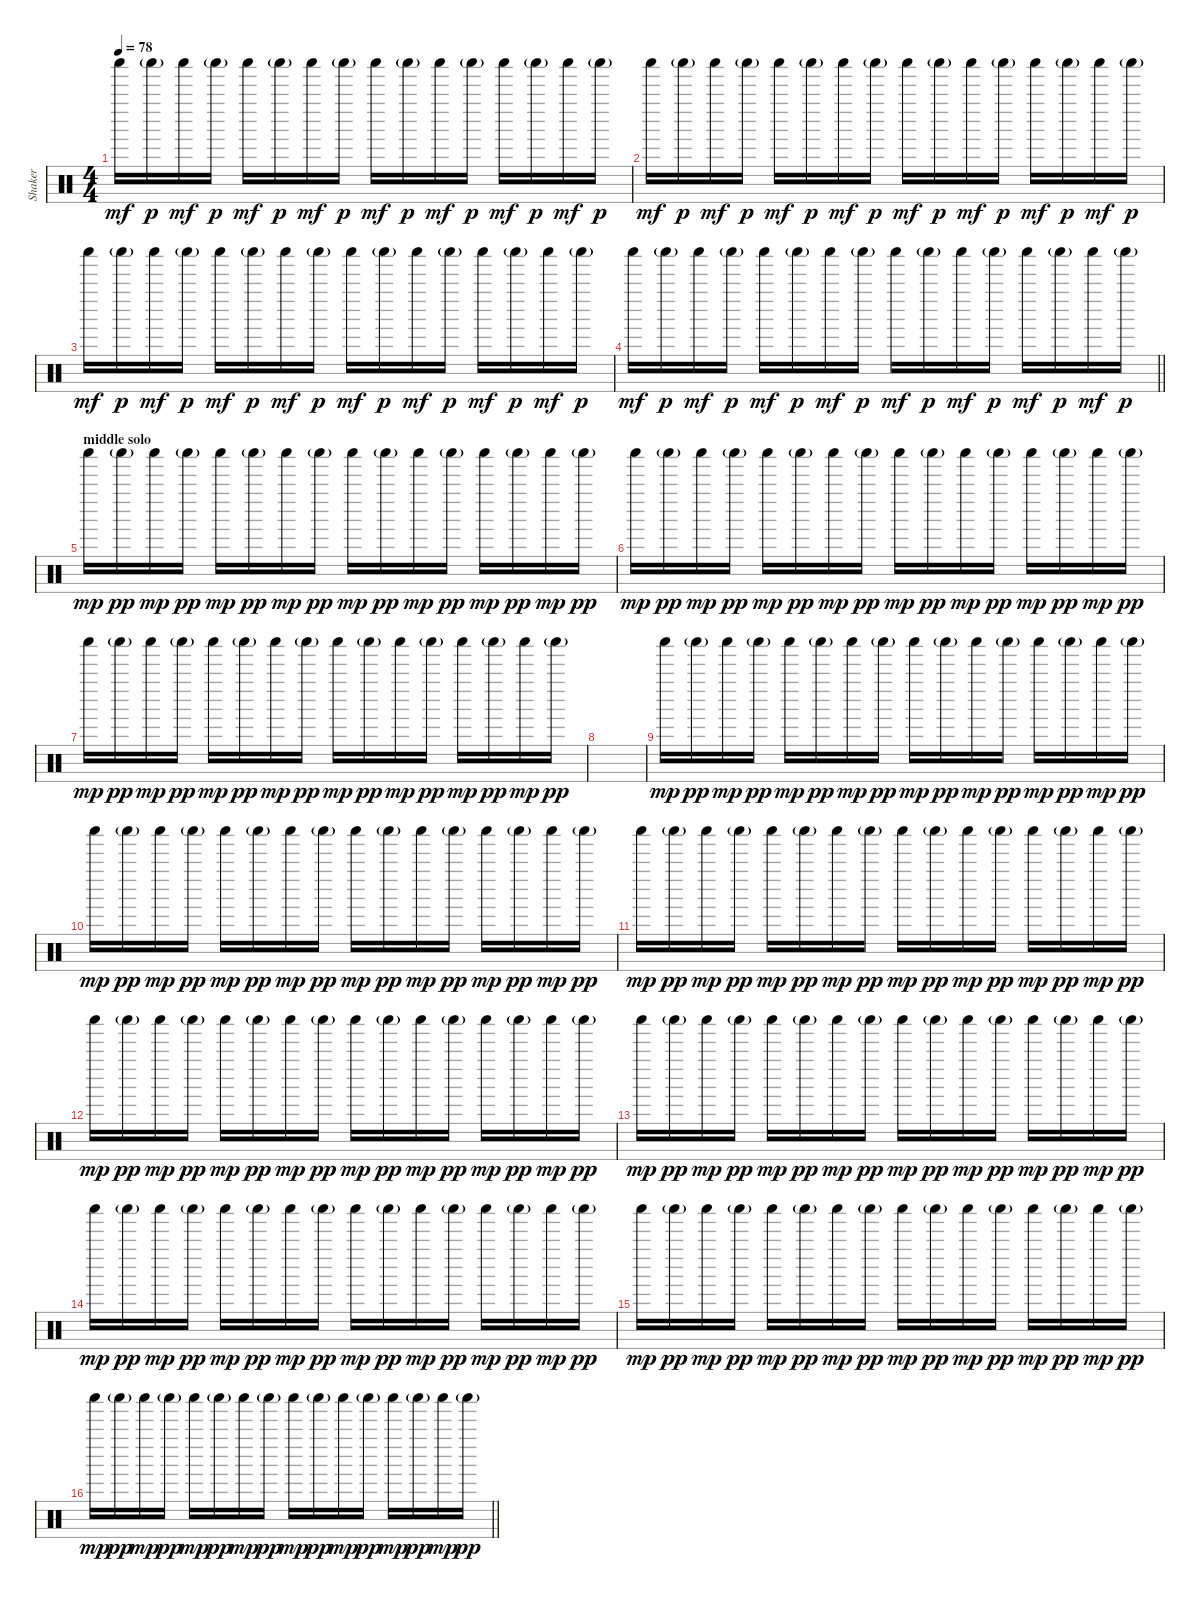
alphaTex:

\track ("Shaker" "Shaker") {instrument percussion}
\staff {score}
\articulation defaults
\ts (4 4)
\tempo 78
\clef neutral
\ks c "Shaker (hit)".16{dy mf} "Shaker (hit)"{g}.16{dy p} "Shaker (hit)".16{dy mf} "Shaker (hit)"{g}.16{dy p} "Shaker (hit)".16{dy mf} "Shaker (hit)"{g}.16{dy p} "Shaker (hit)".16{dy mf} "Shaker (hit)"{g}.16{dy p} "Shaker (hit)".16{dy mf} "Shaker (hit)"{g}.16{dy p} "Shaker (hit)".16{dy mf} "Shaker (hit)"{g}.16{dy p} "Shaker (hit)".16{dy mf} "Shaker (hit)"{g}.16{dy p} "Shaker (hit)".16{dy mf} "Shaker (hit)"{g}.16{dy p}
|
"Shaker (hit)".16{dy mf} "Shaker (hit)"{g}.16{dy p} "Shaker (hit)".16{dy mf} "Shaker (hit)"{g}.16{dy p} "Shaker (hit)".16{dy mf} "Shaker (hit)"{g}.16{dy p} "Shaker (hit)".16{dy mf} "Shaker (hit)"{g}.16{dy p} "Shaker (hit)".16{dy mf} "Shaker (hit)"{g}.16{dy p} "Shaker (hit)".16{dy mf} "Shaker (hit)"{g}.16{dy p} "Shaker (hit)".16{dy mf} "Shaker (hit)"{g}.16{dy p} "Shaker (hit)".16{dy mf} "Shaker (hit)"{g}.16{dy p} |
"Shaker (hit)".16{dy mf} "Shaker (hit)"{g}.16{dy p} "Shaker (hit)".16{dy mf} "Shaker (hit)"{g}.16{dy p} "Shaker (hit)".16{dy mf} "Shaker (hit)"{g}.16{dy p} "Shaker (hit)".16{dy mf} "Shaker (hit)"{g}.16{dy p} "Shaker (hit)".16{dy mf} "Shaker (hit)"{g}.16{dy p} "Shaker (hit)".16{dy mf} "Shaker (hit)"{g}.16{dy p} "Shaker (hit)".16{dy mf} "Shaker (hit)"{g}.16{dy p} "Shaker (hit)".16{dy mf} "Shaker (hit)"{g}.16{dy p} |
\barLineRight lightlight "Shaker (hit)".16{dy mf} "Shaker (hit)"{g}.16{dy p} "Shaker (hit)".16{dy mf} "Shaker (hit)"{g}.16{dy p} "Shaker (hit)".16{dy mf} "Shaker (hit)"{g}.16{dy p} "Shaker (hit)".16{dy mf} "Shaker (hit)"{g}.16{dy p} "Shaker (hit)".16{dy mf} "Shaker (hit)"{g}.16{dy p} "Shaker (hit)".16{dy mf} "Shaker (hit)"{g}.16{dy p} "Shaker (hit)".16{dy mf} "Shaker (hit)"{g}.16{dy p} "Shaker (hit)".16{dy mf} "Shaker (hit)"{g}.16{dy p}
|
\section ("" "middle solo")
"Shaker (hit)".16{dy mp} "Shaker (hit)"{g}.16{dy pp} "Shaker (hit)".16{dy mp} "Shaker (hit)"{g}.16{dy pp} "Shaker (hit)".16{dy mp} "Shaker (hit)"{g}.16{dy pp} "Shaker (hit)".16{dy mp} "Shaker (hit)"{g}.16{dy pp} "Shaker (hit)".16{dy mp} "Shaker (hit)"{g}.16{dy pp} "Shaker (hit)".16{dy mp} "Shaker (hit)"{g}.16{dy pp} "Shaker (hit)".16{dy mp} "Shaker (hit)"{g}.16{dy pp} "Shaker (hit)".16{dy mp} "Shaker (hit)"{g}.16{dy pp} |
"Shaker (hit)".16{dy mp} "Shaker (hit)"{g}.16{dy pp} "Shaker (hit)".16{dy mp} "Shaker (hit)"{g}.16{dy pp} "Shaker (hit)".16{dy mp} "Shaker (hit)"{g}.16{dy pp} "Shaker (hit)".16{dy mp} "Shaker (hit)"{g}.16{dy pp} "Shaker (hit)".16{dy mp} "Shaker (hit)"{g}.16{dy pp} "Shaker (hit)".16{dy mp} "Shaker (hit)"{g}.16{dy pp} "Shaker (hit)".16{dy mp} "Shaker (hit)"{g}.16{dy pp} "Shaker (hit)".16{dy mp} "Shaker (hit)"{g}.16{dy pp} |
"Shaker (hit)".16{dy mp} "Shaker (hit)"{g}.16{dy pp} "Shaker (hit)".16{dy mp} "Shaker (hit)"{g}.16{dy pp} "Shaker (hit)".16{dy mp} "Shaker (hit)"{g}.16{dy pp} "Shaker (hit)".16{dy mp} "Shaker (hit)"{g}.16{dy pp} "Shaker (hit)".16{dy mp} "Shaker (hit)"{g}.16{dy pp} "Shaker (hit)".16{dy mp} "Shaker (hit)"{g}.16{dy pp} "Shaker (hit)".16{dy mp} "Shaker (hit)"{g}.16{dy pp} "Shaker (hit)".16{dy mp} "Shaker (hit)"{g}.16{dy pp} |
|
"Shaker (hit)".16{dy mp} "Shaker (hit)"{g}.16{dy pp} "Shaker (hit)".16{dy mp} "Shaker (hit)"{g}.16{dy pp} "Shaker (hit)".16{dy mp} "Shaker (hit)"{g}.16{dy pp} "Shaker (hit)".16{dy mp} "Shaker (hit)"{g}.16{dy pp} "Shaker (hit)".16{dy mp} "Shaker (hit)"{g}.16{dy pp} "Shaker (hit)".16{dy mp} "Shaker (hit)"{g}.16{dy pp} "Shaker (hit)".16{dy mp} "Shaker (hit)"{g}.16{dy pp} "Shaker (hit)".16{dy mp} "Shaker (hit)"{g}.16{dy pp} |
"Shaker (hit)".16{dy mp} "Shaker (hit)"{g}.16{dy pp} "Shaker (hit)".16{dy mp} "Shaker (hit)"{g}.16{dy pp} "Shaker (hit)".16{dy mp} "Shaker (hit)"{g}.16{dy pp} "Shaker (hit)".16{dy mp} "Shaker (hit)"{g}.16{dy pp} "Shaker (hit)".16{dy mp} "Shaker (hit)"{g}.16{dy pp} "Shaker (hit)".16{dy mp} "Shaker (hit)"{g}.16{dy pp} "Shaker (hit)".16{dy mp} "Shaker (hit)"{g}.16{dy pp} "Shaker (hit)".16{dy mp} "Shaker (hit)"{g}.16{dy pp} |
"Shaker (hit)".16{dy mp} "Shaker (hit)"{g}.16{dy pp} "Shaker (hit)".16{dy mp} "Shaker (hit)"{g}.16{dy pp} "Shaker (hit)".16{dy mp} "Shaker (hit)"{g}.16{dy pp} "Shaker (hit)".16{dy mp} "Shaker (hit)"{g}.16{dy pp} "Shaker (hit)".16{dy mp} "Shaker (hit)"{g}.16{dy pp} "Shaker (hit)".16{dy mp} "Shaker (hit)"{g}.16{dy pp} "Shaker (hit)".16{dy mp} "Shaker (hit)"{g}.16{dy pp} "Shaker (hit)".16{dy mp} "Shaker (hit)"{g}.16{dy pp} |
"Shaker (hit)".16{dy mp} "Shaker (hit)"{g}.16{dy pp} "Shaker (hit)".16{dy mp} "Shaker (hit)"{g}.16{dy pp} "Shaker (hit)".16{dy mp} "Shaker (hit)"{g}.16{dy pp} "Shaker (hit)".16{dy mp} "Shaker (hit)"{g}.16{dy pp} "Shaker (hit)".16{dy mp} "Shaker (hit)"{g}.16{dy pp} "Shaker (hit)".16{dy mp} "Shaker (hit)"{g}.16{dy pp} "Shaker (hit)".16{dy mp} "Shaker (hit)"{g}.16{dy pp} "Shaker (hit)".16{dy mp} "Shaker (hit)"{g}.16{dy pp} |
"Shaker (hit)".16{dy mp} "Shaker (hit)"{g}.16{dy pp} "Shaker (hit)".16{dy mp} "Shaker (hit)"{g}.16{dy pp} "Shaker (hit)".16{dy mp} "Shaker (hit)"{g}.16{dy pp} "Shaker (hit)".16{dy mp} "Shaker (hit)"{g}.16{dy pp} "Shaker (hit)".16{dy mp} "Shaker (hit)"{g}.16{dy pp} "Shaker (hit)".16{dy mp} "Shaker (hit)"{g}.16{dy pp} "Shaker (hit)".16{dy mp} "Shaker (hit)"{g}.16{dy pp} "Shaker (hit)".16{dy mp} "Shaker (hit)"{g}.16{dy pp} |
"Shaker (hit)".16{dy mp} "Shaker (hit)"{g}.16{dy pp} "Shaker (hit)".16{dy mp} "Shaker (hit)"{g}.16{dy pp} "Shaker (hit)".16{dy mp} "Shaker (hit)"{g}.16{dy pp} "Shaker (hit)".16{dy mp} "Shaker (hit)"{g}.16{dy pp} "Shaker (hit)".16{dy mp} "Shaker (hit)"{g}.16{dy pp} "Shaker (hit)".16{dy mp} "Shaker (hit)"{g}.16{dy pp} "Shaker (hit)".16{dy mp} "Shaker (hit)"{g}.16{dy pp} "Shaker (hit)".16{dy mp} "Shaker (hit)"{g}.16{dy pp} |
"Shaker (hit)".16{dy mp} "Shaker (hit)"{g}.16{dy pp} "Shaker (hit)".16{dy mp} "Shaker (hit)"{g}.16{dy pp} "Shaker (hit)".16{dy mp} "Shaker (hit)"{g}.16{dy pp} "Shaker (hit)".16{dy mp} "Shaker (hit)"{g}.16{dy pp} "Shaker (hit)".16{dy mp} "Shaker (hit)"{g}.16{dy pp} "Shaker (hit)".16{dy mp} "Shaker (hit)"{g}.16{dy pp} "Shaker (hit)".16{dy mp} "Shaker (hit)"{g}.16{dy pp} "Shaker (hit)".16{dy mp} "Shaker (hit)"{g}.16{dy pp} |
\barLineRight lightlight "Shaker (hit)".16{dy mp} "Shaker (hit)"{g}.16{dy pp} "Shaker (hit)".16{dy mp} "Shaker (hit)"{g}.16{dy pp} "Shaker (hit)".16{dy mp} "Shaker (hit)"{g}.16{dy pp} "Shaker (hit)".16{dy mp} "Shaker (hit)"{g}.16{dy pp} "Shaker (hit)".16{dy mp} "Shaker (hit)"{g}.16{dy pp} "Shaker (hit)".16{dy mp} "Shaker (hit)"{g}.16{dy pp} "Shaker (hit)".16{dy mp} "Shaker (hit)"{g}.16{dy pp} "Shaker (hit)".16{dy mp} "Shaker (hit)"{g}.16{dy pp}
